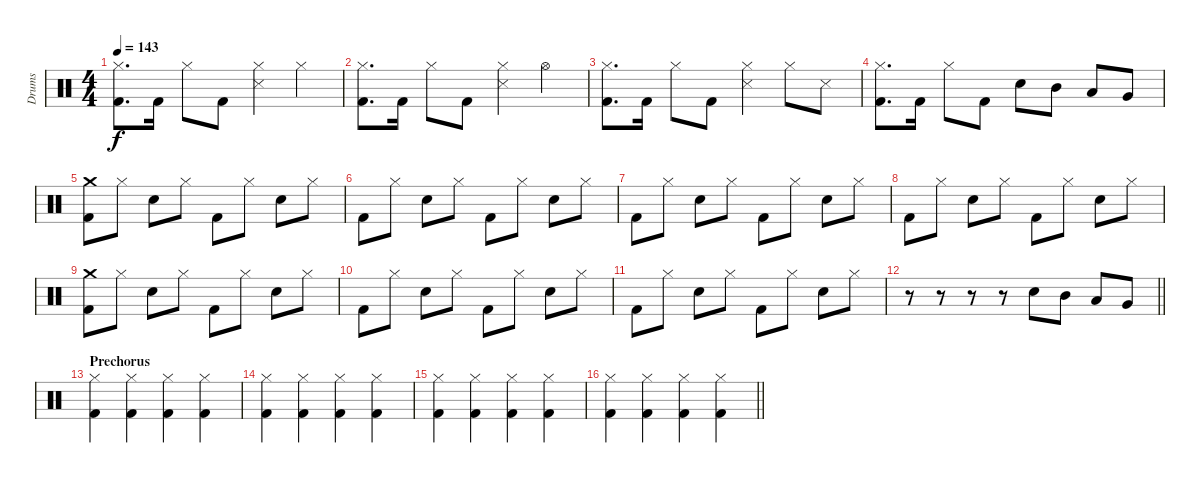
\track ("Drums" "Drums") {instrument percussion}
\staff {score}
\articulation defaults
\ts (4 4)
\tempo 143
\clef neutral
\ks c
("Hi-Hat (closed)" "Kick (hit) 2").8{d dy f} "Kick (hit) 2".16 "Hi-Hat (closed)".8 "Kick (hit) 2".8 ("Hi-Hat (closed)" "Snare (side stick) 3").4 "Hi-Hat (closed)".4 |
("Hi-Hat (closed)" "Kick (hit) 2").8{d} "Kick (hit) 2".16 "Hi-Hat (closed)".8 "Kick (hit) 2".8 ("Hi-Hat (closed)" "Snare (side stick) 3").4 "Hi-Hat (open)".4 |
("Hi-Hat (closed)" "Kick (hit) 2").8{d} "Kick (hit) 2".16 "Hi-Hat (closed)".8 "Kick (hit) 2".8 ("Hi-Hat (closed)" "Snare (side stick) 3").4 "Hi-Hat (closed)".8 "Snare (side stick) 3".8 |
("Hi-Hat (closed)" "Kick (hit) 2").8{d} "Kick (hit) 2".16 "Hi-Hat (closed)".8 "Kick (hit) 2".8 "Snare (hit) 2".8 "Mid Tom (hit)".8 "Low Tom (hit)".8 "Very Low Tom (hit)".8 |
("Crash medium (hit)" "Kick (hit) 2").8 "Hi-Hat (closed)".8 "Snare (hit) 2".8 "Hi-Hat (closed)".8 "Kick (hit) 2".8 "Hi-Hat (closed)".8 "Snare (hit) 2".8 "Hi-Hat (closed)".8 |
"Kick (hit) 2".8 "Hi-Hat (closed)".8 "Snare (hit) 2".8 "Hi-Hat (closed)".8 "Kick (hit) 2".8 "Hi-Hat (closed)".8 "Snare (hit) 2".8 "Hi-Hat (closed)".8 |
"Kick (hit) 2".8 "Hi-Hat (closed)".8 "Snare (hit) 2".8 "Hi-Hat (closed)".8 "Kick (hit) 2".8 "Hi-Hat (closed)".8 "Snare (hit) 2".8 "Hi-Hat (closed)".8 |
"Kick (hit) 2".8 "Hi-Hat (closed)".8 "Snare (hit) 2".8 "Hi-Hat (closed)".8 "Kick (hit) 2".8 "Hi-Hat (closed)".8 "Snare (hit) 2".8 "Hi-Hat (closed)".8 |
("Crash medium (hit)" "Kick (hit) 2").8 "Hi-Hat (closed)".8 "Snare (hit) 2".8 "Hi-Hat (closed)".8 "Kick (hit) 2".8 "Hi-Hat (closed)".8 "Snare (hit) 2".8 "Hi-Hat (closed)".8 |
"Kick (hit) 2".8 "Hi-Hat (closed)".8 "Snare (hit) 2".8 "Hi-Hat (closed)".8 "Kick (hit) 2".8 "Hi-Hat (closed)".8 "Snare (hit) 2".8 "Hi-Hat (closed)".8 |
"Kick (hit) 2".8 "Hi-Hat (closed)".8 "Snare (hit) 2".8 "Hi-Hat (closed)".8 "Kick (hit) 2".8 "Hi-Hat (closed)".8 "Snare (hit) 2".8 "Hi-Hat (closed)".8 |
\barLineRight lightlight
r.8 r.8 r.8 r.8 "Snare (hit) 2".8 "Mid Tom (hit)".8 "Low Tom (hit)".8 "Very Low Tom (hit)".8 |
\section ("" "Prechorus")
("Hi-Hat (closed)" "Kick (hit) 2").4 ("Hi-Hat (closed)" "Kick (hit) 2").4 ("Hi-Hat (closed)" "Kick (hit) 2").4 ("Hi-Hat (closed)" "Kick (hit) 2").4 |
("Hi-Hat (closed)" "Kick (hit) 2").4 ("Hi-Hat (closed)" "Kick (hit) 2").4 ("Hi-Hat (closed)" "Kick (hit) 2").4 ("Hi-Hat (closed)" "Kick (hit) 2").4 |
("Hi-Hat (closed)" "Kick (hit) 2").4 ("Hi-Hat (closed)" "Kick (hit) 2").4 ("Hi-Hat (closed)" "Kick (hit) 2").4 ("Hi-Hat (closed)" "Kick (hit) 2").4 |
\barLineRight lightlight
("Hi-Hat (closed)" "Kick (hit) 2").4 ("Hi-Hat (closed)" "Kick (hit) 2").4 ("Hi-Hat (closed)" "Kick (hit) 2").4 ("Hi-Hat (closed)" "Kick (hit) 2").4
